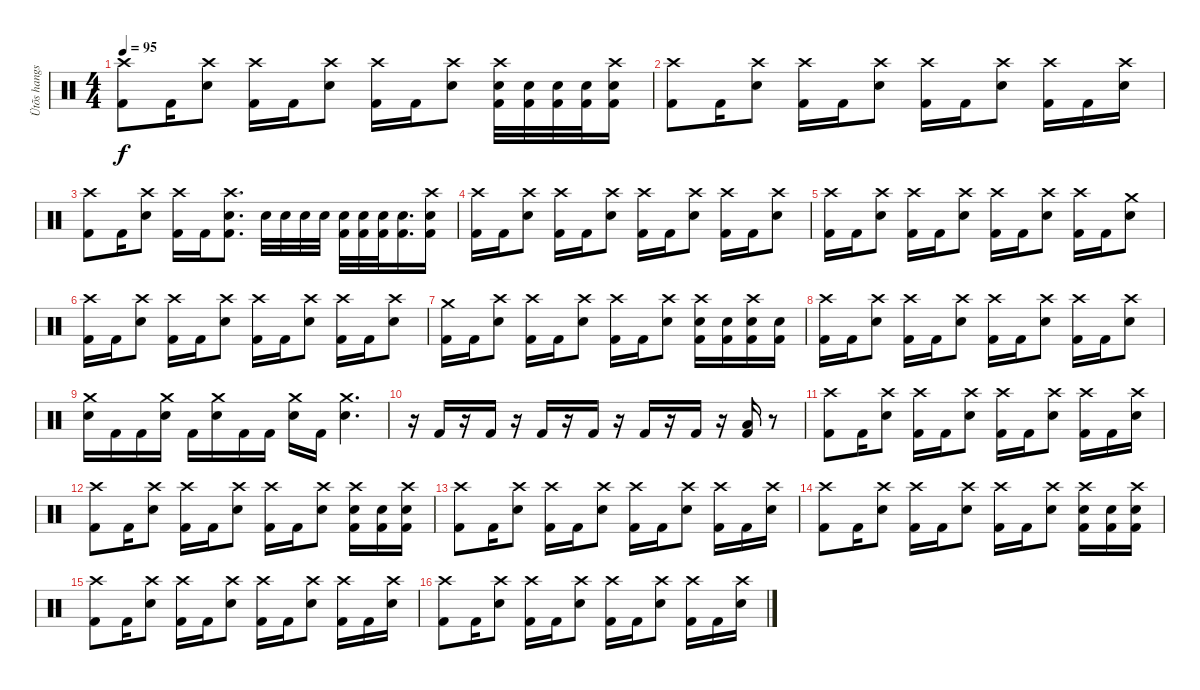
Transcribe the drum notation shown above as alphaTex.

\track ("Ütõs hangszer" "Ütõs hangs") {instrument percussion}
\staff {score}
\articulation defaults
\ts (4 4)
\tempo 95
\clef neutral
\ks c
("Crash high (hit)" "Kick (hit) 2").8{dy f} "Kick (hit) 2".16 ("Crash high (hit)" "Electric Snare (hit)").8 ("Crash high (hit)" "Kick (hit) 2").16 "Kick (hit) 2".16 ("Crash high (hit)" "Electric Snare (hit)").8 ("Crash high (hit)" "Kick (hit) 2").16 "Kick (hit) 2".16 ("Crash high (hit)" "Electric Snare (hit)").8 ("Crash high (hit)" "Electric Snare (hit)" "Kick (hit) 2").32 ("Electric Snare (hit)" "Kick (hit) 2").32 ("Electric Snare (hit)" "Kick (hit) 2").32 ("Electric Snare (hit)" "Kick (hit) 2").32 ("Crash high (hit)" "Electric Snare (hit)" "Kick (hit) 2").16 |
("Crash high (hit)" "Kick (hit) 2").8 "Kick (hit) 2".16 ("Crash high (hit)" "Electric Snare (hit)").8 ("Crash high (hit)" "Kick (hit) 2").16 "Kick (hit) 2".16 ("Crash high (hit)" "Electric Snare (hit)").8 ("Crash high (hit)" "Kick (hit) 2").16 "Kick (hit) 2".16 ("Crash high (hit)" "Electric Snare (hit)").8 ("Crash high (hit)" "Kick (hit) 2").16 "Kick (hit) 2".16 ("Crash high (hit)" "Electric Snare (hit)").16 |
("Crash high (hit)" "Kick (hit) 2").8 "Kick (hit) 2".16 ("Crash high (hit)" "Electric Snare (hit)").8 ("Crash high (hit)" "Kick (hit) 2").16 "Kick (hit) 2".16 ("Crash high (hit)" "Electric Snare (hit)" "Kick (hit) 2").8{d} "Electric Snare (hit)".32 "Electric Snare (hit)".32 "Electric Snare (hit)".32 "Electric Snare (hit)".32 ("Electric Snare (hit)" "Kick (hit) 2").32 ("Electric Snare (hit)" "Kick (hit) 2").32 ("Electric Snare (hit)" "Kick (hit) 2").32 ("Electric Snare (hit)" "Kick (hit) 2").16{d} ("Crash high (hit)" "Electric Snare (hit)" "Kick (hit) 2").16 |
("Crash high (hit)" "Kick (hit) 2").16 "Kick (hit) 2".16 ("Crash high (hit)" "Electric Snare (hit)").8 ("Crash high (hit)" "Kick (hit) 2").16 "Kick (hit) 2".16 ("Crash high (hit)" "Electric Snare (hit)").8 ("Crash high (hit)" "Kick (hit) 2").16 "Kick (hit) 2".16 ("Crash high (hit)" "Electric Snare (hit)").8 ("Crash high (hit)" "Kick (hit) 2").16 "Kick (hit) 2".16 ("Crash high (hit)" "Electric Snare (hit)").8 |
("Crash high (hit)" "Kick (hit) 2").16 "Kick (hit) 2".16 ("Crash high (hit)" "Electric Snare (hit)").8 ("Crash high (hit)" "Kick (hit) 2").16 "Kick (hit) 2".16 ("Crash high (hit)" "Electric Snare (hit)").8 ("Crash high (hit)" "Kick (hit) 2").16 "Kick (hit) 2".16 ("Crash high (hit)" "Electric Snare (hit)").8 ("Crash high (hit)" "Kick (hit) 2").16 "Kick (hit) 2".16 ("Crash medium (hit)" "Electric Snare (hit)").8 |
("Crash high (hit)" "Kick (hit) 2").16 "Kick (hit) 2".16 ("Crash high (hit)" "Electric Snare (hit)").8 ("Crash high (hit)" "Kick (hit) 2").16 "Kick (hit) 2".16 ("Crash high (hit)" "Electric Snare (hit)").8 ("Crash high (hit)" "Kick (hit) 2").16 "Kick (hit) 2".16 ("Crash high (hit)" "Electric Snare (hit)").8 ("Crash high (hit)" "Kick (hit) 2").16 "Kick (hit) 2".16 ("Crash high (hit)" "Electric Snare (hit)").8 |
("Crash medium (hit)" "Kick (hit) 2").16 "Kick (hit) 2".16 ("Crash high (hit)" "Electric Snare (hit)").8 ("Crash high (hit)" "Kick (hit) 2").16 "Kick (hit) 2".16 ("Crash high (hit)" "Electric Snare (hit)").8 ("Crash high (hit)" "Kick (hit) 2").16 "Kick (hit) 2".16 ("Crash high (hit)" "Electric Snare (hit)").8 ("Crash high (hit)" "Electric Snare (hit)" "Kick (hit) 2").16 ("Electric Snare (hit)" "Kick (hit) 2").16 ("Crash high (hit)" "Electric Snare (hit)" "Kick (hit) 2").16 ("Electric Snare (hit)" "Kick (hit) 2").16 |
("Crash high (hit)" "Kick (hit) 2").16 "Kick (hit) 2".16 ("Crash high (hit)" "Electric Snare (hit)").8 ("Crash high (hit)" "Kick (hit) 2").16 "Kick (hit) 2".16 ("Crash high (hit)" "Electric Snare (hit)").8 ("Crash high (hit)" "Kick (hit) 2").16 "Kick (hit) 2".16 ("Crash high (hit)" "Electric Snare (hit)").8 ("Crash high (hit)" "Kick (hit) 2").16 "Kick (hit) 2".16 ("Crash high (hit)" "Electric Snare (hit)").8 |
("Crash medium (hit)" "Electric Snare (hit)").16 "Kick (hit) 2".16 "Kick (hit) 2".16 ("Crash medium (hit)" "Electric Snare (hit)").16 "Kick (hit) 2".16 ("Crash medium (hit)" "Electric Snare (hit)").16 "Kick (hit) 2".16 "Kick (hit) 2".16 ("Crash medium (hit)" "Electric Snare (hit)").16 "Kick (hit) 2".16 ("Crash medium (hit)" "Electric Snare (hit)").4{d} |
r.16 "Kick (hit) 2".16 r.16 "Kick (hit) 2".16 r.16 "Kick (hit) 2".16 r.16 "Kick (hit) 2".16 r.16 "Kick (hit) 2".16 r.16 "Kick (hit) 2".16 r.16 ("Low Floor Tom (hit)" "Kick (hit) 2").16 r.8 |
("Crash high (hit)" "Kick (hit) 2").8 "Kick (hit) 2".16 ("Crash high (hit)" "Electric Snare (hit)").8 ("Crash high (hit)" "Kick (hit) 2").16 "Kick (hit) 2".16 ("Crash high (hit)" "Electric Snare (hit)").8 ("Crash high (hit)" "Kick (hit) 2").16 "Kick (hit) 2".16 ("Crash high (hit)" "Electric Snare (hit)").8 ("Crash high (hit)" "Kick (hit) 2").16 "Kick (hit) 2".16 ("Crash high (hit)" "Electric Snare (hit)").16 |
("Crash high (hit)" "Kick (hit) 2").8 "Kick (hit) 2".16 ("Crash high (hit)" "Electric Snare (hit)").8 ("Crash high (hit)" "Kick (hit) 2").16 "Kick (hit) 2".16 ("Crash high (hit)" "Electric Snare (hit)").8 ("Crash high (hit)" "Kick (hit) 2").16 "Kick (hit) 2".16 ("Crash high (hit)" "Electric Snare (hit)").8 ("Crash high (hit)" "Electric Snare (hit)" "Kick (hit) 2").16 ("Electric Snare (hit)" "Kick (hit) 2").16 ("Crash high (hit)" "Electric Snare (hit)" "Kick (hit) 2").16 |
("Crash high (hit)" "Kick (hit) 2").8 "Kick (hit) 2".16 ("Crash high (hit)" "Electric Snare (hit)").8 ("Crash high (hit)" "Kick (hit) 2").16 "Kick (hit) 2".16 ("Crash high (hit)" "Electric Snare (hit)").8 ("Crash high (hit)" "Kick (hit) 2").16 "Kick (hit) 2".16 ("Crash high (hit)" "Electric Snare (hit)").8 ("Crash high (hit)" "Kick (hit) 2").16 "Kick (hit) 2".16 ("Crash high (hit)" "Electric Snare (hit)").16 |
("Crash high (hit)" "Kick (hit) 2").8 "Kick (hit) 2".16 ("Crash high (hit)" "Electric Snare (hit)").8 ("Crash high (hit)" "Kick (hit) 2").16 "Kick (hit) 2".16 ("Crash high (hit)" "Electric Snare (hit)").8 ("Crash high (hit)" "Kick (hit) 2").16 "Kick (hit) 2".16 ("Crash high (hit)" "Electric Snare (hit)").8 ("Crash high (hit)" "Electric Snare (hit)" "Kick (hit) 2").16 ("Electric Snare (hit)" "Kick (hit) 2").16 ("Crash high (hit)" "Electric Snare (hit)" "Kick (hit) 2").16 |
("Crash high (hit)" "Kick (hit) 2").8 "Kick (hit) 2".16 ("Crash high (hit)" "Electric Snare (hit)").8 ("Crash high (hit)" "Kick (hit) 2").16 "Kick (hit) 2".16 ("Crash high (hit)" "Electric Snare (hit)").8 ("Crash high (hit)" "Kick (hit) 2").16 "Kick (hit) 2".16 ("Crash high (hit)" "Electric Snare (hit)").8 ("Crash high (hit)" "Kick (hit) 2").16 "Kick (hit) 2".16 ("Crash high (hit)" "Electric Snare (hit)").16 |
("Crash high (hit)" "Kick (hit) 2").8 "Kick (hit) 2".16 ("Crash high (hit)" "Electric Snare (hit)").8 ("Crash high (hit)" "Kick (hit) 2").16 "Kick (hit) 2".16 ("Crash high (hit)" "Electric Snare (hit)").8 ("Crash high (hit)" "Kick (hit) 2").16 "Kick (hit) 2".16 ("Crash high (hit)" "Electric Snare (hit)").8 ("Crash high (hit)" "Kick (hit) 2").16 "Kick (hit) 2".16 ("Crash high (hit)" "Electric Snare (hit)").16
